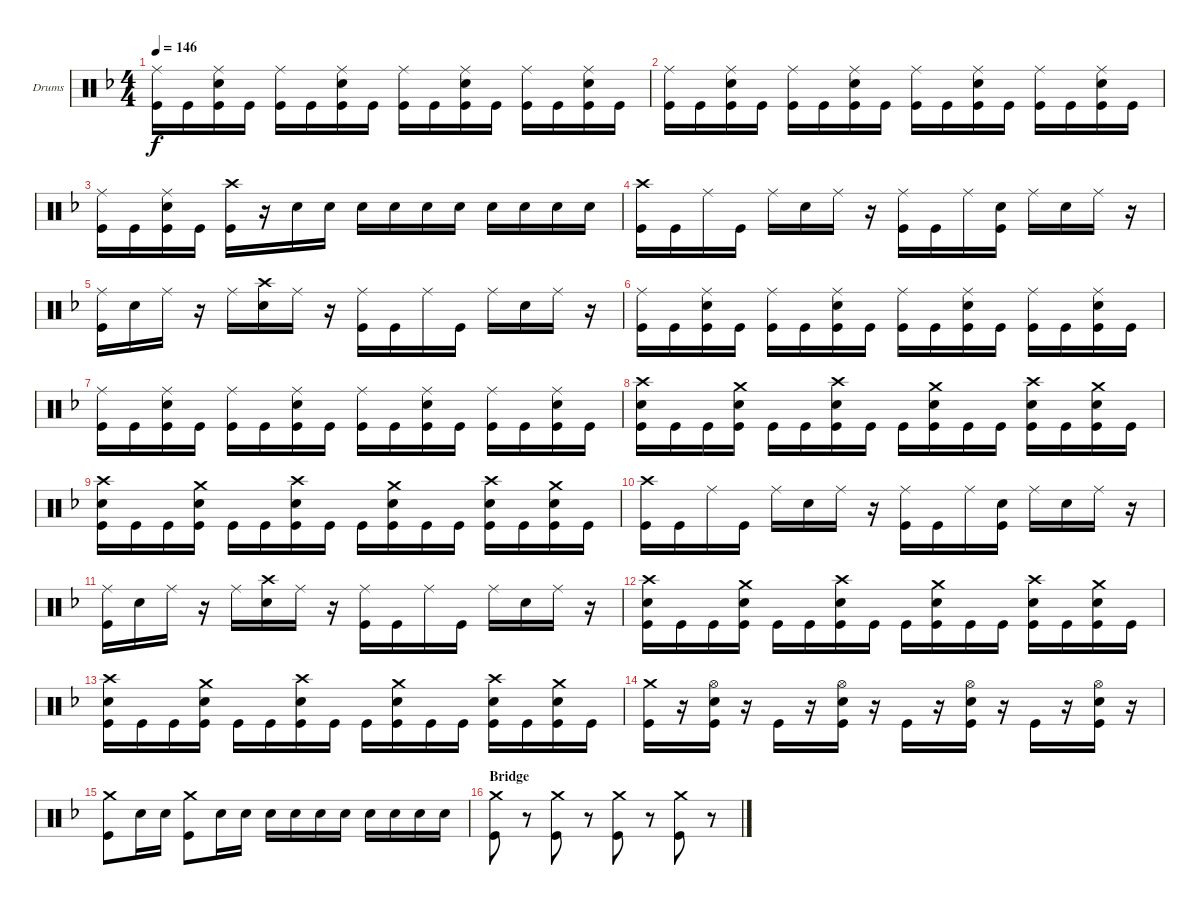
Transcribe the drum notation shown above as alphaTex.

\defaultSystemsLayout 4
\bracketExtendMode groupsimilarinstruments
\firstSystemTrackNameOrientation horizontal
\otherSystemsTrackNameOrientation horizontal
\track ("Gar Samuelson (Drums)" "Drums") {instrument percussion}
\staff {score}
\articulation defaults
\ts (4 4)
\tempo 146
\clef neutral
\scale
0.333333
\ks dminor
("Ride (middle)" "Kick (hit)").16{dy f} "Kick (hit)".16 ("Ride (middle)" "Snare (hit) 2" "Kick (hit)").16 "Kick (hit)".16 ("Ride (middle)" "Kick (hit)").16 "Kick (hit)".16 ("Ride (middle)" "Snare (hit) 2" "Kick (hit)").16 "Kick (hit)".16 ("Ride (middle)" "Kick (hit)").16 "Kick (hit)".16 ("Ride (middle)" "Snare (hit) 2" "Kick (hit)").16 "Kick (hit)".16 ("Ride (middle)" "Kick (hit)").16 "Kick (hit)".16 ("Ride (middle)" "Snare (hit) 2" "Kick (hit)").16 "Kick (hit)".16 |
\scale
0.333333 ("Ride (middle)" "Kick (hit)").16 "Kick (hit)".16 ("Ride (middle)" "Snare (hit) 2" "Kick (hit)").16 "Kick (hit)".16 ("Ride (middle)" "Kick (hit)").16 "Kick (hit)".16 ("Ride (middle)" "Snare (hit) 2" "Kick (hit)").16 "Kick (hit)".16 ("Ride (middle)" "Kick (hit)").16 "Kick (hit)".16 ("Ride (middle)" "Snare (hit) 2" "Kick (hit)").16 "Kick (hit)".16 ("Ride (middle)" "Kick (hit)").16 "Kick (hit)".16 ("Ride (middle)" "Snare (hit) 2" "Kick (hit)").16 "Kick (hit)".16 |
\scale
0.333333 ("Ride (middle)" "Kick (hit)").16 "Kick (hit)".16 ("Ride (middle)" "Snare (hit) 2" "Kick (hit)").16 "Kick (hit)".16 ("Crash high (hit)" "Kick (hit)").16 r.16 "Snare (hit) 2".16 "Snare (hit) 2".16 "Snare (hit) 2".16 "Snare (hit) 2".16 "Snare (hit) 2".16 "Snare (hit) 2".16 "Snare (hit) 2".16 "Snare (hit) 2".16 "Snare (hit) 2".16 "Snare (hit) 2".16 |
\scale
0.333333 ("Crash high (hit)" "Kick (hit)").16 "Kick (hit)".16 "Ride (middle)".16 "Kick (hit)".16 "Ride (middle)".16 "Snare (hit) 2".16 "Ride (middle)".16 r.16 ("Ride (middle)" "Kick (hit)").16 "Kick (hit)".16 "Ride (middle)".16 ("Snare (hit) 2" "Kick (hit)").16 "Ride (middle)".16 "Snare (hit) 2".16 "Ride (middle)".16 r.16 |
\scale
0.333333 ("Ride (middle)" "Kick (hit)").16 "Snare (hit) 2".16 "Ride (middle)".16 r.16 "Ride (middle)".16 ("Crash high (hit)" "Snare (hit) 2").16 "Ride (middle)".16 r.16 ("Ride (middle)" "Kick (hit)").16 "Kick (hit)".16 "Ride (middle)".16 "Kick (hit)".16 "Ride (middle)".16 "Snare (hit) 2".16 "Ride (middle)".16 r.16 |
\scale
0.333333 ("Ride (middle)" "Kick (hit)").16 "Kick (hit)".16 ("Ride (middle)" "Snare (hit) 2" "Kick (hit)").16 "Kick (hit)".16 ("Ride (middle)" "Kick (hit)").16 "Kick (hit)".16 ("Ride (middle)" "Snare (hit) 2" "Kick (hit)").16 "Kick (hit)".16 ("Ride (middle)" "Kick (hit)").16 "Kick (hit)".16 ("Ride (middle)" "Snare (hit) 2" "Kick (hit)").16 "Kick (hit)".16 ("Ride (middle)" "Kick (hit)").16 "Kick (hit)".16 ("Ride (middle)" "Snare (hit) 2" "Kick (hit)").16 "Kick (hit)".16 |
\scale
0.333333 ("Ride (middle)" "Kick (hit)").16 "Kick (hit)".16 ("Ride (middle)" "Snare (hit) 2" "Kick (hit)").16 "Kick (hit)".16 ("Ride (middle)" "Kick (hit)").16 "Kick (hit)".16 ("Ride (middle)" "Snare (hit) 2" "Kick (hit)").16 "Kick (hit)".16 ("Ride (middle)" "Kick (hit)").16 "Kick (hit)".16 ("Ride (middle)" "Snare (hit) 2" "Kick (hit)").16 "Kick (hit)".16 ("Ride (middle)" "Kick (hit)").16 "Kick (hit)".16 ("Ride (middle)" "Snare (hit) 2" "Kick (hit)").16 "Kick (hit)".16 |
\scale
0.333333 ("Crash high (hit)" "Snare (hit) 2" "Kick (hit)").16 "Kick (hit)".16 "Kick (hit)".16 ("Crash medium (hit)" "Snare (hit) 2" "Kick (hit)").16 "Kick (hit)".16 "Kick (hit)".16 ("Crash high (hit)" "Snare (hit) 2" "Kick (hit)").16 "Kick (hit)".16 "Kick (hit)".16 ("Crash medium (hit)" "Snare (hit) 2" "Kick (hit)").16 "Kick (hit)".16 "Kick (hit)".16 ("Crash high (hit)" "Snare (hit) 2" "Kick (hit)").16 "Kick (hit)".16 ("Crash medium (hit)" "Snare (hit) 2" "Kick (hit)").16 "Kick (hit)".16 |
\scale
0.333333 ("Crash high (hit)" "Snare (hit) 2" "Kick (hit)").16 "Kick (hit)".16 "Kick (hit)".16 ("Crash medium (hit)" "Snare (hit) 2" "Kick (hit)").16 "Kick (hit)".16 "Kick (hit)".16 ("Crash high (hit)" "Snare (hit) 2" "Kick (hit)").16 "Kick (hit)".16 "Kick (hit)".16 ("Crash medium (hit)" "Snare (hit) 2" "Kick (hit)").16 "Kick (hit)".16 "Kick (hit)".16 ("Crash high (hit)" "Snare (hit) 2" "Kick (hit)").16 "Kick (hit)".16 ("Crash medium (hit)" "Snare (hit) 2" "Kick (hit)").16 "Kick (hit)".16 |
\scale
0.333333 ("Crash high (hit)" "Kick (hit)").16 "Kick (hit)".16 "Ride (middle)".16 "Kick (hit)".16 "Ride (middle)".16 "Snare (hit) 2".16 "Ride (middle)".16 r.16 ("Ride (middle)" "Kick (hit)").16 "Kick (hit)".16 "Ride (middle)".16 ("Snare (hit) 2" "Kick (hit)").16 "Ride (middle)".16 "Snare (hit) 2".16 "Ride (middle)".16 r.16 |
\scale
0.333333 ("Ride (middle)" "Kick (hit)").16 "Snare (hit) 2".16 "Ride (middle)".16 r.16 "Ride (middle)".16 ("Crash high (hit)" "Snare (hit) 2").16 "Ride (middle)".16 r.16 ("Ride (middle)" "Kick (hit)").16 "Kick (hit)".16 "Ride (middle)".16 "Kick (hit)".16 "Ride (middle)".16 "Snare (hit) 2".16 "Ride (middle)".16 r.16 |
\scale
0.333333 ("Crash high (hit)" "Snare (hit) 2" "Kick (hit)").16 "Kick (hit)".16 "Kick (hit)".16 ("Crash medium (hit)" "Snare (hit) 2" "Kick (hit)").16 "Kick (hit)".16 "Kick (hit)".16 ("Crash high (hit)" "Snare (hit) 2" "Kick (hit)").16 "Kick (hit)".16 "Kick (hit)".16 ("Crash medium (hit)" "Snare (hit) 2" "Kick (hit)").16 "Kick (hit)".16 "Kick (hit)".16 ("Crash high (hit)" "Snare (hit) 2" "Kick (hit)").16 "Kick (hit)".16 ("Crash medium (hit)" "Snare (hit) 2" "Kick (hit)").16 "Kick (hit)".16 |
\scale
0.333333 ("Crash high (hit)" "Snare (hit) 2" "Kick (hit)").16 "Kick (hit)".16 "Kick (hit)".16 ("Crash medium (hit)" "Snare (hit) 2" "Kick (hit)").16 "Kick (hit)".16 "Kick (hit)".16 ("Crash high (hit)" "Snare (hit) 2" "Kick (hit)").16 "Kick (hit)".16 "Kick (hit)".16 ("Crash medium (hit)" "Snare (hit) 2" "Kick (hit)").16 "Kick (hit)".16 "Kick (hit)".16 ("Crash high (hit)" "Snare (hit) 2" "Kick (hit)").16 "Kick (hit)".16 ("Crash medium (hit)" "Snare (hit) 2" "Kick (hit)").16 "Kick (hit)".16 |
\scale
0.333333 ("Crash medium (hit)" "Kick (hit)").16 r.16 ("Hi-Hat (open)" "Snare (hit) 2" "Kick (hit)").16 r.16 "Kick (hit)".16 r.16 ("Hi-Hat (open)" "Snare (hit) 2" "Kick (hit)").16 r.16 "Kick (hit)".16 r.16 ("Hi-Hat (open)" "Snare (hit) 2" "Kick (hit)").16 r.16 "Kick (hit)".16 r.16 ("Hi-Hat (open)" "Snare (hit) 2" "Kick (hit)").16 r.16 |
\scale
0.333333 ("Crash medium (hit)" "Kick (hit)").8 "Snare (hit) 2".16 "Snare (hit) 2".16 ("Crash medium (hit)" "Kick (hit)").8 "Snare (hit) 2".16 "Snare (hit) 2".16 "Snare (hit) 2".16 "Snare (hit) 2".16 "Snare (hit) 2".16 "Snare (hit) 2".16 "Snare (hit) 2".16 "Snare (hit) 2".16 "Snare (hit) 2".16 "Snare (hit) 2".16 |
\section ("" "Bridge")
\scale
0.333333 ("Crash medium (hit)" "Kick (hit)").8 r.8 ("Crash medium (hit)" "Kick (hit)").8 r.8 ("Crash medium (hit)" "Kick (hit)").8 r.8 ("Crash medium (hit)" "Kick (hit)").8 r.8
